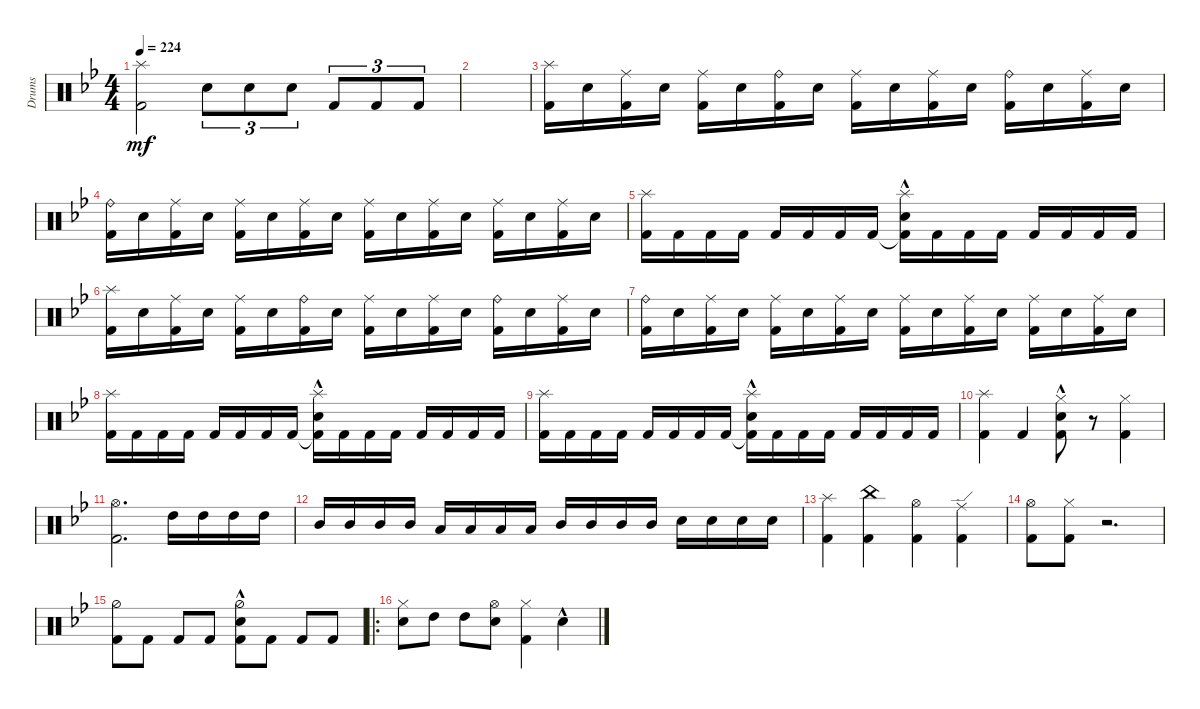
\defaultSystemsLayout 4
\bracketExtendMode groupsimilarinstruments
\otherSystemsTrackNameOrientation horizontal
\track ("Drumkit" "Drums") {instrument percussion}
\staff {score}
\articulation defaults
\ts (4 4)
\tempo 224
\clef neutral
\scale
0.333333
\ks bb
("Kick (hit) 2"{acc forcenatural} "Splash (hit)"{acc forcenatural}).2{dy mf beam Down} "Snare (hit) 2"{acc forcenatural}.8{tu (3 2) beam Down} "Snare (hit) 2"{acc forcenatural}.8{tu (3 2) beam Down} "Snare (hit) 2"{acc forcenatural}.8{tu (3 2) beam Down} "Kick (hit) 2"{acc forcenatural}.8{tu (3 2) beam Up} "Kick (hit) 2"{acc forcenatural}.8{tu (3 2) beam Up} "Kick (hit) 2"{acc forcenatural}.8{tu (3 2) beam Up} |
\scale
0.333333 |
\scale
0.333333 ("Splash (hit)"{acc forcenatural} "Kick (hit) 2"{acc forcenatural}).16{beam Down} "Snare (hit) 2"{acc forcenatural}.16{beam Down} ("Kick (hit) 2"{acc forcenatural} "Ride (middle)"{acc forcenatural}).16{beam Down} "Snare (hit) 2"{acc forcenatural}.16{beam Down} ("Kick (hit) 2"{acc forcenatural} "Ride (middle)"{acc forcenatural}).16{beam Down} "Snare (hit) 2"{acc forcenatural}.16{beam Down} ("Kick (hit) 2"{acc forcenatural} "Ride (bell)"{acc forcenatural}).16{beam Down} "Snare (hit) 2"{acc forcenatural}.16{beam Down} ("Kick (hit) 2"{acc forcenatural} "Ride (middle)"{acc forcenatural}).16{beam Down} "Snare (hit) 2"{acc forcenatural}.16{beam Down} ("Kick (hit) 2"{acc forcenatural} "Ride (middle)"{acc forcenatural}).16{beam Down} "Snare (hit) 2"{acc forcenatural}.16{beam Down} ("Kick (hit) 2"{acc forcenatural} "Ride (bell)"{acc forcenatural}).16{beam Down} "Snare (hit) 2"{acc forcenatural}.16{beam Down} ("Kick (hit) 2"{acc forcenatural} "Ride (middle)"{acc forcenatural}).16{beam Down} "Snare (hit) 2"{acc forcenatural}.16{beam Down} |
\scale
0.333333 ("Kick (hit) 2"{acc forcenatural} "Ride (bell)"{acc forcenatural}).16{beam Down} "Snare (hit) 2"{acc forcenatural}.16{beam Down} ("Kick (hit) 2"{acc forcenatural} "Ride (middle)"{acc forcenatural}).16{beam Down} "Snare (hit) 2"{acc forcenatural}.16{beam Down} ("Kick (hit) 2"{acc forcenatural} "Ride (middle)"{acc forcenatural}).16{beam Down} "Snare (hit) 2"{acc forcenatural}.16{beam Down} ("Kick (hit) 2"{acc forcenatural} "Ride (middle)"{acc forcenatural}).16{beam Down} "Snare (hit) 2"{acc forcenatural}.16{beam Down} ("Kick (hit) 2"{acc forcenatural} "Ride (middle)"{acc forcenatural}).16{beam Down} "Snare (hit) 2"{acc forcenatural}.16{beam Down} ("Kick (hit) 2"{acc forcenatural} "Ride (middle)"{acc forcenatural}).16{beam Down} "Snare (hit) 2"{acc forcenatural}.16{beam Down} ("Kick (hit) 2"{acc forcenatural} "Ride (middle)"{acc forcenatural}).16{beam Down} "Snare (hit) 2"{acc forcenatural}.16{beam Down} ("Kick (hit) 2"{acc forcenatural} "Ride (middle)"{acc forcenatural}).16{beam Down} "Snare (hit) 2"{acc forcenatural}.16{beam Down} |
\scale
0.333333 ("Kick (hit) 2"{acc forcenatural} "Splash (hit)"{acc forcenatural}).16{beam Down} "Kick (hit) 2"{acc forcenatural}.16{beam Down} "Kick (hit) 2"{acc forcenatural}.16{beam Down} "Kick (hit) 2"{acc forcenatural}.16{beam Down} "Kick (hit) 2"{acc forcenatural}.16{beam Up} "Kick (hit) 2"{acc forcenatural}.16{beam Up} "Kick (hit) 2"{acc forcenatural}.16{beam Up} "Kick (hit) 2"{acc forcenatural}.16{beam Up} ("Kick (hit) 2"{t acc forcenatural} "Splash (hit)"{acc forcenatural} "Snare (hit) 2"{hac acc forcenatural}).16{beam Down} "Kick (hit) 2"{acc forcenatural}.16{beam Down} "Kick (hit) 2"{acc forcenatural}.16{beam Down} "Kick (hit) 2"{acc forcenatural}.16{beam Down} "Kick (hit) 2"{acc forcenatural}.16{beam Up} "Kick (hit) 2"{acc forcenatural}.16{beam Up} "Kick (hit) 2"{acc forcenatural}.16{beam Up} "Kick (hit) 2"{acc forcenatural}.16{beam Up} |
\scale
0.333333 ("Splash (hit)"{acc forcenatural} "Kick (hit) 2"{acc forcenatural}).16{beam Down} "Snare (hit) 2"{acc forcenatural}.16{beam Down} ("Kick (hit) 2"{acc forcenatural} "Ride (middle)"{acc forcenatural}).16{beam Down} "Snare (hit) 2"{acc forcenatural}.16{beam Down} ("Kick (hit) 2"{acc forcenatural} "Ride (middle)"{acc forcenatural}).16{beam Down} "Snare (hit) 2"{acc forcenatural}.16{beam Down} ("Kick (hit) 2"{acc forcenatural} "Ride (bell)"{acc forcenatural}).16{beam Down} "Snare (hit) 2"{acc forcenatural}.16{beam Down} ("Kick (hit) 2"{acc forcenatural} "Ride (middle)"{acc forcenatural}).16{beam Down} "Snare (hit) 2"{acc forcenatural}.16{beam Down} ("Kick (hit) 2"{acc forcenatural} "Ride (middle)"{acc forcenatural}).16{beam Down} "Snare (hit) 2"{acc forcenatural}.16{beam Down} ("Kick (hit) 2"{acc forcenatural} "Ride (bell)"{acc forcenatural}).16{beam Down} "Snare (hit) 2"{acc forcenatural}.16{beam Down} ("Kick (hit) 2"{acc forcenatural} "Ride (middle)"{acc forcenatural}).16{beam Down} "Snare (hit) 2"{acc forcenatural}.16{beam Down} |
\scale
0.333333 ("Kick (hit) 2"{acc forcenatural} "Ride (bell)"{acc forcenatural}).16{beam Down} "Snare (hit) 2"{acc forcenatural}.16{beam Down} ("Kick (hit) 2"{acc forcenatural} "Ride (middle)"{acc forcenatural}).16{beam Down} "Snare (hit) 2"{acc forcenatural}.16{beam Down} ("Kick (hit) 2"{acc forcenatural} "Ride (middle)"{acc forcenatural}).16{beam Down} "Snare (hit) 2"{acc forcenatural}.16{beam Down} ("Kick (hit) 2"{acc forcenatural} "Ride (middle)"{acc forcenatural}).16{beam Down} "Snare (hit) 2"{acc forcenatural}.16{beam Down} ("Kick (hit) 2"{acc forcenatural} "Ride (middle)"{acc forcenatural}).16{beam Down} "Snare (hit) 2"{acc forcenatural}.16{beam Down} ("Kick (hit) 2"{acc forcenatural} "Ride (middle)"{acc forcenatural}).16{beam Down} "Snare (hit) 2"{acc forcenatural}.16{beam Down} ("Kick (hit) 2"{acc forcenatural} "Ride (middle)"{acc forcenatural}).16{beam Down} "Snare (hit) 2"{acc forcenatural}.16{beam Down} ("Kick (hit) 2"{acc forcenatural} "Ride (middle)"{acc forcenatural}).16{beam Down} "Snare (hit) 2"{acc forcenatural}.16{beam Down} |
\scale
0.333333 ("Kick (hit) 2"{acc forcenatural} "Splash (hit)"{acc forcenatural}).16{beam Down} "Kick (hit) 2"{acc forcenatural}.16{beam Down} "Kick (hit) 2"{acc forcenatural}.16{beam Down} "Kick (hit) 2"{acc forcenatural}.16{beam Down} "Kick (hit) 2"{acc forcenatural}.16{beam Up} "Kick (hit) 2"{acc forcenatural}.16{beam Up} "Kick (hit) 2"{acc forcenatural}.16{beam Up} "Kick (hit) 2"{acc forcenatural}.16{beam Up} ("Kick (hit) 2"{t acc forcenatural} "Splash (hit)"{acc forcenatural} "Snare (hit) 2"{hac acc forcenatural}).16{beam Down} "Kick (hit) 2"{acc forcenatural}.16{beam Down} "Kick (hit) 2"{acc forcenatural}.16{beam Down} "Kick (hit) 2"{acc forcenatural}.16{beam Down} "Kick (hit) 2"{acc forcenatural}.16{beam Up} "Kick (hit) 2"{acc forcenatural}.16{beam Up} "Kick (hit) 2"{acc forcenatural}.16{beam Up} "Kick (hit) 2"{acc forcenatural}.16{beam Up} |
\scale
0.333333 ("Kick (hit) 2"{acc forcenatural} "Splash (hit)"{acc forcenatural}).16{beam Down} "Kick (hit) 2"{acc forcenatural}.16{beam Down} "Kick (hit) 2"{acc forcenatural}.16{beam Down} "Kick (hit) 2"{acc forcenatural}.16{beam Down} "Kick (hit) 2"{acc forcenatural}.16{beam Up} "Kick (hit) 2"{acc forcenatural}.16{beam Up} "Kick (hit) 2"{acc forcenatural}.16{beam Up} "Kick (hit) 2"{acc forcenatural}.16{beam Up} ("Kick (hit) 2"{t acc forcenatural} "Splash (hit)"{acc forcenatural} "Snare (hit) 2"{hac acc forcenatural}).16{beam Down} "Kick (hit) 2"{acc forcenatural}.16{beam Down} "Kick (hit) 2"{acc forcenatural}.16{beam Down} "Kick (hit) 2"{acc forcenatural}.16{beam Down} "Kick (hit) 2"{acc forcenatural}.16{beam Up} "Kick (hit) 2"{acc forcenatural}.16{beam Up} "Kick (hit) 2"{acc forcenatural}.16{beam Up} "Kick (hit) 2"{acc forcenatural}.16{beam Up} |
\scale
0.333333 ("Splash (hit)"{acc forcenatural} "Kick (hit) 2"{acc forcenatural}).4{beam Down} "Kick (hit) 2"{acc forcenatural}.4{beam Up} ("Kick (hit) 2"{acc forcenatural} "Snare (hit) 2"{hac acc forcenatural} "Hi-Hat (closed)"{acc forcenatural}).8{beam Down} r.8{beam Down} ("Kick (hit) 2"{acc forcenatural} "Hi-Hat (closed)"{acc forcenatural}).4{beam Down} |
\scale
0.333333 ("Kick (hit) 2"{acc forcenatural} "Hi-Hat (open)"{acc forcenatural}).2{d beam Down} "High Tom (hit)"{acc forcenatural}.16{beam Down} "High Tom (hit)"{acc forcenatural}.16{beam Down} "High Tom (hit)"{acc forcenatural}.16{beam Down} "High Tom (hit)"{acc forcenatural}.16{beam Down} |
\scale
0.333333 "Mid Tom (hit)"{acc forcenatural}.16{beam Up} "Mid Tom (hit)"{acc forcenatural}.16{beam Up} "Mid Tom (hit)"{acc forcenatural}.16{beam Up} "Mid Tom (hit)"{acc forcenatural}.16{beam Up} "Low Tom (hit)"{acc forcenatural}.16{beam Up} "Low Tom (hit)"{acc forcenatural}.16{beam Up} "Low Tom (hit)"{acc forcenatural}.16{beam Up} "Low Tom (hit)"{acc forcenatural}.16{beam Up} "Mid Tom (hit)"{acc forcenatural}.16{beam Up} "Mid Tom (hit)"{acc forcenatural}.16{beam Up} "Mid Tom (hit)"{acc forcenatural}.16{beam Up} "Mid Tom (hit)"{acc forcenatural}.16{beam Up} "Snare (hit) 2"{acc forcenatural}.16{beam Down} "Snare (hit) 2"{acc forcenatural}.16{beam Down} "Snare (hit) 2"{acc forcenatural}.16{beam Down} "Snare (hit) 2"{acc forcenatural}.16{beam Down} |
\scale
0.333333 ("Splash (hit)"{acc forcenatural} "Kick (hit) 2"{acc forcenatural}).4{beam Down} ("China (hit)"{acc forcenatural} "Kick (hit) 2"{acc forcenatural}).4{beam Down} ("Hi-Hat (open)"{acc forcenatural} "Kick (hit) 2"{acc forcenatural}).4{beam Down} ("Ride (edge)"{acc forcenatural} "Kick (hit) 2"{acc forcenatural}).4{beam Down} |
\scale
0.333333 ("Hi-Hat (open)"{acc forcenatural} "Kick (hit) 2"{acc forcenatural}).8{beam Down} ("Hi-Hat (closed)"{acc forcenatural} "Kick (hit) 2"{acc forcenatural}).8{beam Down} r.2{d beam Down} |
\scale
0.333333 ("Kick (hit) 2"{acc forcenatural} "Hi-Hat (half)"{acc forcenatural}).8{beam Down} "Kick (hit) 2"{acc forcenatural}.8{beam Down} "Kick (hit) 2"{acc forcenatural}.8{beam Up} "Kick (hit) 2"{acc forcenatural}.8{beam Up} ("Kick (hit) 2"{acc forcenatural} "Hi-Hat (half)"{acc forcenatural} "Snare (hit) 2"{hac acc forcenatural}).8{beam Down} "Kick (hit) 2"{acc forcenatural}.8{beam Down} "Kick (hit) 2"{acc forcenatural}.8{beam Up} "Kick (hit) 2"{acc forcenatural}.8{beam Up} |
\ro
\scale
0.377778 ("Snare (hit) 2"{acc forcenatural} "Hi-Hat (closed)"{acc forcenatural}).8{beam Down} "High Tom (hit)"{acc forcenatural}.8{beam Down} "High Tom (hit)"{acc forcenatural}.8{beam Down} ("Snare (hit) 2"{acc forcenatural} "Hi-Hat (open)"{acc forcenatural}).8{beam Down} ("Kick (hit) 2"{acc forcenatural} "Hi-Hat (closed)"{acc forcenatural}).4{beam Down} "Snare (hit) 2"{hac acc forcenatural}.4{beam Down}
